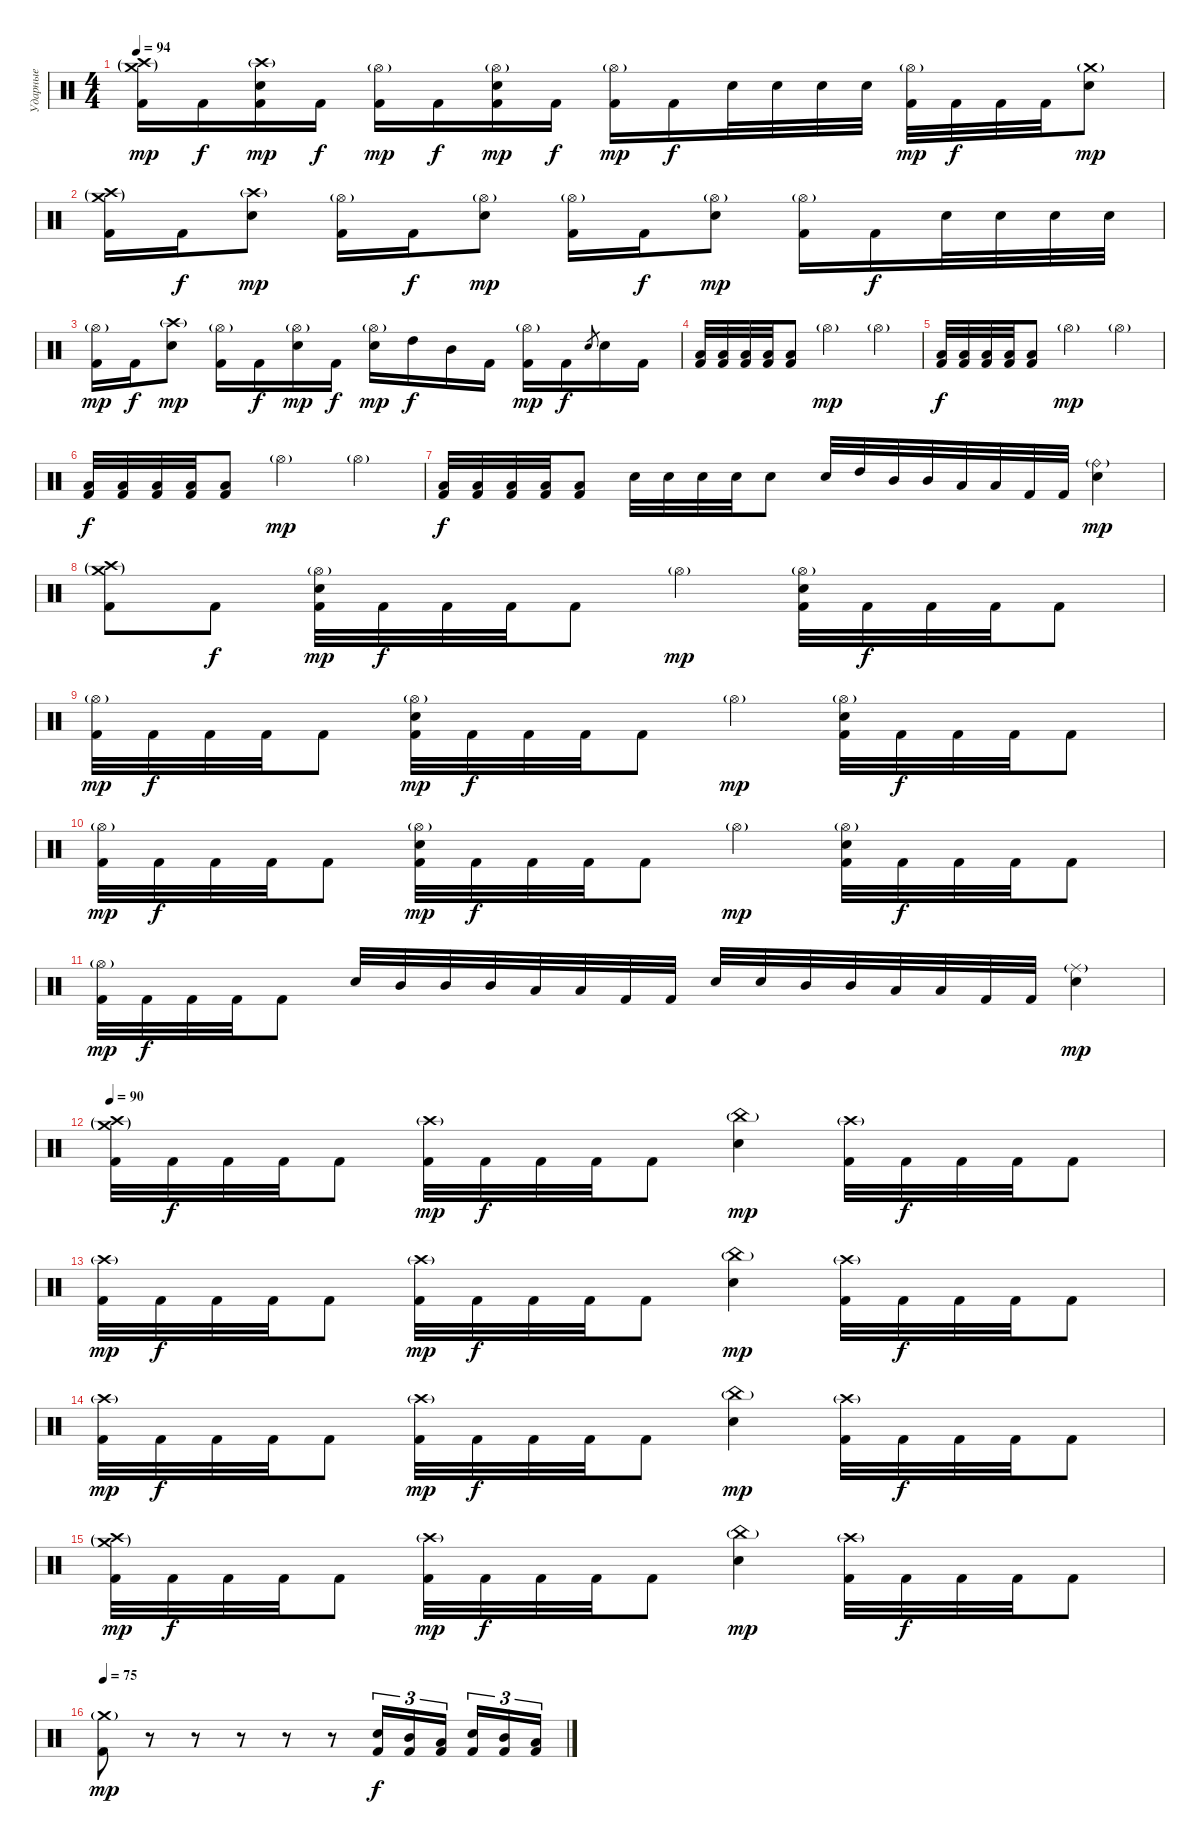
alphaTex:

\track ("Ударные" "Ударные") {instrument percussion}
\staff {score}
\articulation defaults
\ts (4 4)
\tempo 94
\clef neutral
\ks c
("Crash high (hit)"{g} "Crash medium (hit)"{g} "Kick (hit) 2").16{dy mp} "Kick (hit) 2".16{dy f} ("Crash high (hit)"{g} "Electric Snare (hit)" "Kick (hit) 2").16{dy mp} "Kick (hit) 2".16{dy f} ("Hi-Hat (open)"{g} "Kick (hit) 2").16{dy mp} "Kick (hit) 2".16{dy f} ("Hi-Hat (open)"{g} "Electric Snare (hit)" "Kick (hit) 2").16{dy mp} "Kick (hit) 2".16{dy f} ("Hi-Hat (open)"{g} "Kick (hit) 2").16{dy mp} "Kick (hit) 2".16{dy f} "Electric Snare (hit)".32 "Electric Snare (hit)".32 "Electric Snare (hit)".32 "Electric Snare (hit)".32 ("Hi-Hat (open)"{g} "Kick (hit) 2").32{dy mp} "Kick (hit) 2".32{dy f} "Kick (hit) 2".32 "Kick (hit) 2".32 ("Crash medium (hit)"{g} "Electric Snare (hit)").8{dy mp} |
("Crash high (hit)"{g} "Crash medium (hit)"{g} "Kick (hit) 2").16 "Kick (hit) 2".16{dy f} ("Crash high (hit)"{g} "Electric Snare (hit)").8{dy mp} ("Hi-Hat (open)"{g} "Kick (hit) 2").16 "Kick (hit) 2".16{dy f} ("Hi-Hat (open)"{g} "Electric Snare (hit)").8{dy mp} ("Hi-Hat (open)"{g} "Kick (hit) 2").16 "Kick (hit) 2".16{dy f} ("Hi-Hat (open)"{g} "Electric Snare (hit)").8{dy mp} ("Hi-Hat (open)"{g} "Kick (hit) 2").16 "Kick (hit) 2".16{dy f} "Electric Snare (hit)".32 "Electric Snare (hit)".32 "Electric Snare (hit)".32 "Electric Snare (hit)".32 |
("Hi-Hat (open)"{g} "Kick (hit) 2").16{dy mp} "Kick (hit) 2".16{dy f} ("Crash high (hit)"{g} "Electric Snare (hit)").8{dy mp} ("Hi-Hat (open)"{g} "Kick (hit) 2").16 "Kick (hit) 2".16{dy f} ("Hi-Hat (open)"{g} "Electric Snare (hit)").16{dy mp} "Kick (hit) 2".16{dy f} ("Hi-Hat (open)"{g} "Electric Snare (hit)").16{dy mp} "High Tom (hit)".16{dy f} "Mid Tom (hit)".16 "Kick (hit) 2".16 ("Hi-Hat (open)"{g} "Kick (hit) 2").16{dy mp} "Kick (hit) 2".16{dy f} "Electric Snare (hit)".8{gr} "Electric Snare (hit)".16 "Kick (hit) 2".16 |
("Low Tom (hit)" "Kick (hit) 2").32 ("Low Tom (hit)" "Kick (hit) 2").32 ("Low Tom (hit)" "Kick (hit) 2").32 ("Low Tom (hit)" "Kick (hit) 2").32 ("Low Tom (hit)" "Kick (hit) 2").8 "Hi-Hat (open)"{g}.2{dy mp} "Hi-Hat (open)"{g}.4 |
("Low Tom (hit)" "Kick (hit) 2").32{dy f} ("Low Tom (hit)" "Kick (hit) 2").32 ("Low Tom (hit)" "Kick (hit) 2").32 ("Low Tom (hit)" "Kick (hit) 2").32 ("Low Tom (hit)" "Kick (hit) 2").8 "Hi-Hat (open)"{g}.2{dy mp} "Hi-Hat (open)"{g}.4 |
("Low Tom (hit)" "Kick (hit) 2").32{dy f} ("Low Tom (hit)" "Kick (hit) 2").32 ("Low Tom (hit)" "Kick (hit) 2").32 ("Low Tom (hit)" "Kick (hit) 2").32 ("Low Tom (hit)" "Kick (hit) 2").8 "Hi-Hat (open)"{g}.2{dy mp} "Hi-Hat (open)"{g}.4 |
("Low Tom (hit)" "Kick (hit) 2").32{dy f} ("Low Tom (hit)" "Kick (hit) 2").32 ("Low Tom (hit)" "Kick (hit) 2").32 ("Low Tom (hit)" "Kick (hit) 2").32 ("Low Tom (hit)" "Kick (hit) 2").8 "Electric Snare (hit)".32 "Electric Snare (hit)".32 "Electric Snare (hit)".32 "Electric Snare (hit)".32 "Electric Snare (hit)".8 "Electric Snare (hit)".32 "High Tom (hit)".32 "Mid Tom (hit)".32 "Mid Tom (hit)".32 "Low Tom (hit)".32 "Low Tom (hit)".32 "Kick (hit) 2".32 "Kick (hit) 2".32 ("Ride (bell)"{g} "Electric Snare (hit)").4{dy mp} |
("Crash high (hit)"{g} "Crash medium (hit)"{g} "Kick (hit) 2").8 "Kick (hit) 2".8{dy f} ("Hi-Hat (open)"{g} "Electric Snare (hit)" "Kick (hit) 2").32{dy mp} "Kick (hit) 2".32{dy f} "Kick (hit) 2".32 "Kick (hit) 2".32 "Kick (hit) 2".8 "Hi-Hat (open)"{g}.4{dy mp} ("Hi-Hat (open)"{g} "Electric Snare (hit)" "Kick (hit) 2").32 "Kick (hit) 2".32{dy f} "Kick (hit) 2".32 "Kick (hit) 2".32 "Kick (hit) 2".8 |
("Hi-Hat (open)"{g} "Kick (hit) 2").32{dy mp} "Kick (hit) 2".32{dy f} "Kick (hit) 2".32 "Kick (hit) 2".32 "Kick (hit) 2".8 ("Hi-Hat (open)"{g} "Electric Snare (hit)" "Kick (hit) 2").32{dy mp} "Kick (hit) 2".32{dy f} "Kick (hit) 2".32 "Kick (hit) 2".32 "Kick (hit) 2".8 "Hi-Hat (open)"{g}.4{dy mp} ("Hi-Hat (open)"{g} "Electric Snare (hit)" "Kick (hit) 2").32 "Kick (hit) 2".32{dy f} "Kick (hit) 2".32 "Kick (hit) 2".32 "Kick (hit) 2".8 |
("Hi-Hat (open)"{g} "Kick (hit) 2").32{dy mp} "Kick (hit) 2".32{dy f} "Kick (hit) 2".32 "Kick (hit) 2".32 "Kick (hit) 2".8 ("Hi-Hat (open)"{g} "Electric Snare (hit)" "Kick (hit) 2").32{dy mp} "Kick (hit) 2".32{dy f} "Kick (hit) 2".32 "Kick (hit) 2".32 "Kick (hit) 2".8 "Hi-Hat (open)"{g}.4{dy mp} ("Hi-Hat (open)"{g} "Electric Snare (hit)" "Kick (hit) 2").32 "Kick (hit) 2".32{dy f} "Kick (hit) 2".32 "Kick (hit) 2".32 "Kick (hit) 2".8 |
("Hi-Hat (open)"{g} "Kick (hit) 2").32{dy mp} "Kick (hit) 2".32{dy f} "Kick (hit) 2".32 "Kick (hit) 2".32 "Kick (hit) 2".8 "Electric Snare (hit)".32 "Mid Tom (hit)".32 "Mid Tom (hit)".32 "Mid Tom (hit)".32 "Low Tom (hit)".32 "Low Tom (hit)".32 "Kick (hit) 2".32 "Kick (hit) 2".32 "Electric Snare (hit)".32 "Electric Snare (hit)".32 "Mid Tom (hit)".32 "Mid Tom (hit)".32 "Low Tom (hit)".32 "Low Tom (hit)".32 "Kick (hit) 2".32 "Kick (hit) 2".32 ("Ride (middle)"{g} "Electric Snare (hit)").4{dy mp} |
\tempo 90
("Crash high (hit)"{g} "Crash medium (hit)"{g} "Kick (hit) 2").32 "Kick (hit) 2".32{dy f} "Kick (hit) 2".32 "Kick (hit) 2".32 "Kick (hit) 2".8 ("Crash high (hit)"{g} "Kick (hit) 2").32{dy mp} "Kick (hit) 2".32{dy f} "Kick (hit) 2".32 "Kick (hit) 2".32 "Kick (hit) 2".8 ("China (hit)"{g} "Electric Snare (hit)").4{dy mp} ("Crash high (hit)"{g} "Kick (hit) 2").32 "Kick (hit) 2".32{dy f} "Kick (hit) 2".32 "Kick (hit) 2".32 "Kick (hit) 2".8 |
("Crash high (hit)"{g} "Kick (hit) 2").32{dy mp} "Kick (hit) 2".32{dy f} "Kick (hit) 2".32 "Kick (hit) 2".32 "Kick (hit) 2".8 ("Crash high (hit)"{g} "Kick (hit) 2").32{dy mp} "Kick (hit) 2".32{dy f} "Kick (hit) 2".32 "Kick (hit) 2".32 "Kick (hit) 2".8 ("China (hit)"{g} "Electric Snare (hit)").4{dy mp} ("Crash high (hit)"{g} "Kick (hit) 2").32 "Kick (hit) 2".32{dy f} "Kick (hit) 2".32 "Kick (hit) 2".32 "Kick (hit) 2".8 |
("Crash high (hit)"{g} "Kick (hit) 2").32{dy mp} "Kick (hit) 2".32{dy f} "Kick (hit) 2".32 "Kick (hit) 2".32 "Kick (hit) 2".8 ("Crash high (hit)"{g} "Kick (hit) 2").32{dy mp} "Kick (hit) 2".32{dy f} "Kick (hit) 2".32 "Kick (hit) 2".32 "Kick (hit) 2".8 ("China (hit)"{g} "Electric Snare (hit)").4{dy mp} ("Crash high (hit)"{g} "Kick (hit) 2").32 "Kick (hit) 2".32{dy f} "Kick (hit) 2".32 "Kick (hit) 2".32 "Kick (hit) 2".8 |
("Crash high (hit)"{g} "Crash medium (hit)"{g} "Kick (hit) 2").32{dy mp} "Kick (hit) 2".32{dy f} "Kick (hit) 2".32 "Kick (hit) 2".32 "Kick (hit) 2".8 ("Crash high (hit)"{g} "Kick (hit) 2").32{dy mp} "Kick (hit) 2".32{dy f} "Kick (hit) 2".32 "Kick (hit) 2".32 "Kick (hit) 2".8 ("China (hit)"{g} "Electric Snare (hit)").4{dy mp} ("Crash high (hit)"{g} "Kick (hit) 2").32 "Kick (hit) 2".32{dy f} "Kick (hit) 2".32 "Kick (hit) 2".32 "Kick (hit) 2".8 |
\tempo 75
("Crash medium (hit)"{g} "Kick (hit) 2").8{dy mp} r.8{volume 0} r.8 r.8 r.8 r.8 ("Electric Snare (hit)" "Kick (hit) 2").16{tu (3 2) dy f volume 16} ("Mid Tom (hit)" "Kick (hit) 2").16{tu (3 2)} ("Low Tom (hit)" "Kick (hit) 2").16{tu (3 2)} ("Electric Snare (hit)" "Kick (hit) 2").16{tu (3 2)} ("Mid Tom (hit)" "Kick (hit) 2").16{tu (3 2)} ("Low Tom (hit)" "Kick (hit) 2").16{tu (3 2)}
